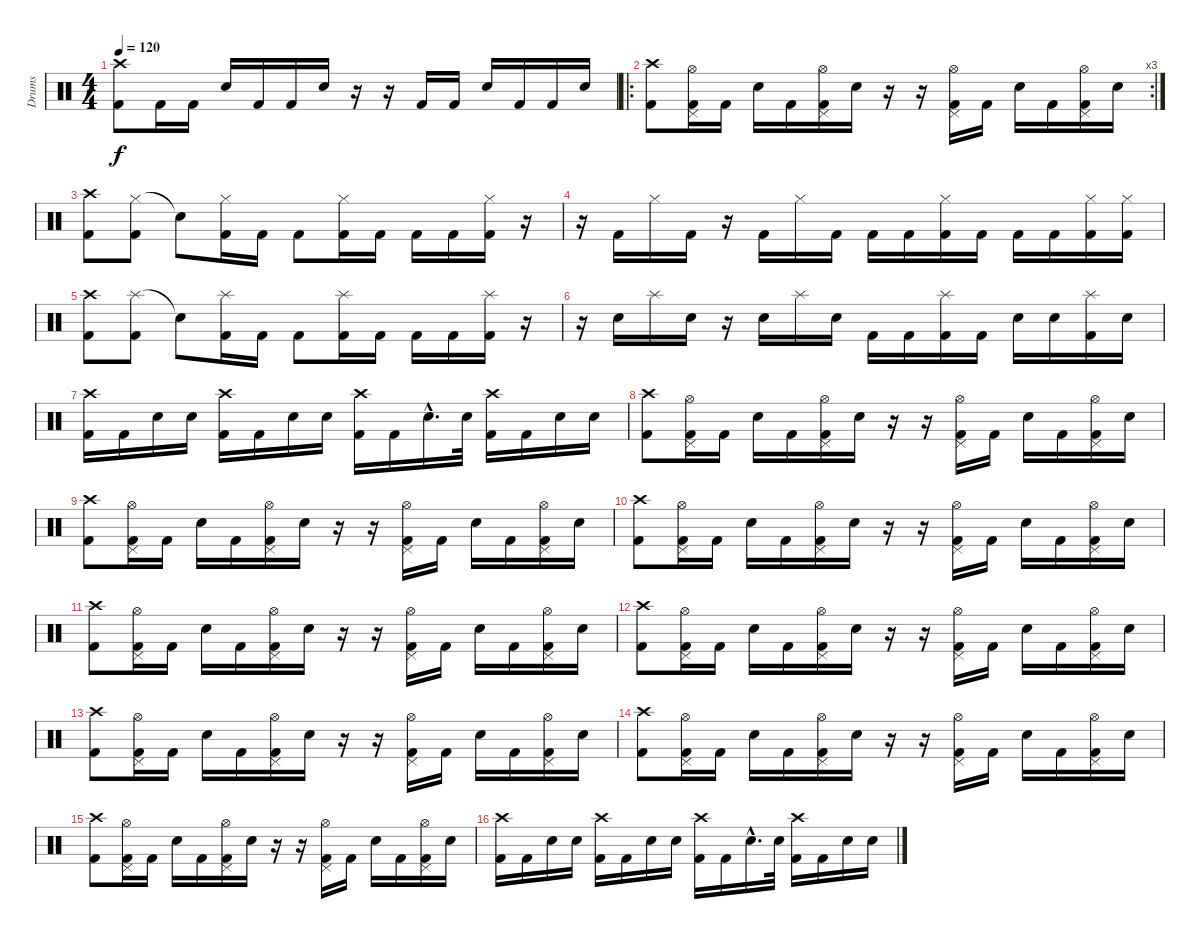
\track ("Drums" "Drums") {instrument percussion}
\staff {score}
\articulation defaults
\ts (4 4)
\tempo 120
\clef neutral
\ks c
("Crash high (hit)" "Kick (hit) 2").8{dy f} "Kick (hit) 2".16 "Kick (hit) 2".16 "Electric Snare (hit)".16 "Kick (hit) 2".16 "Kick (hit) 2".16 "Electric Snare (hit)".16 r.16 r.16 "Kick (hit) 2".16 "Kick (hit) 2".16 "Electric Snare (hit)".16 "Kick (hit) 2".16 "Kick (hit) 2".16 "Electric Snare (hit)".16 |
\ro
\rc 3
("Crash high (hit)" "Kick (hit) 2").8 ("Pedal Hi-Hat (hit)" "Hi-Hat (open)" "Kick (hit) 2").16 "Kick (hit) 2".16 "Electric Snare (hit)".16 "Kick (hit) 2".16 ("Pedal Hi-Hat (hit)" "Hi-Hat (open)" "Kick (hit) 2").16 "Electric Snare (hit)".16 r.16 r.16 ("Pedal Hi-Hat (hit)" "Hi-Hat (open)" "Kick (hit) 2").16 "Kick (hit) 2".16 "Electric Snare (hit)".16 "Kick (hit) 2".16 ("Pedal Hi-Hat (hit)" "Hi-Hat (open)" "Kick (hit) 2").16 "Electric Snare (hit)".16 |
("Crash high (hit)" "Kick (hit) 2").8 ("Hi-Hat (closed)" "Kick (hit) 2").8 "Snare (hit)"{t}.8 ("Hi-Hat (closed)" "Kick (hit) 2").16 "Kick (hit) 2".16 "Kick (hit) 2".8 ("Hi-Hat (closed)" "Kick (hit) 2").16 "Kick (hit) 2".16 "Kick (hit) 2".16 "Kick (hit) 2".16 ("Hi-Hat (closed)" "Kick (hit) 2").16 r.16 |
r.16 "Kick (hit) 2".16 "Hi-Hat (closed)".16 "Kick (hit) 2".16 r.16 "Kick (hit) 2".16 "Hi-Hat (closed)".16 "Kick (hit) 2".16 "Kick (hit) 2".16 "Kick (hit) 2".16 ("Hi-Hat (closed)" "Kick (hit) 2").16 "Kick (hit) 2".16 "Kick (hit) 2".16 "Kick (hit) 2".16 ("Hi-Hat (closed)" "Kick (hit) 2").16 ("Hi-Hat (closed)" "Kick (hit) 2").16 |
("Crash high (hit)" "Kick (hit) 2").8 ("Splash (hit)" "Kick (hit) 2").8 "Snare (hit)"{t}.8 ("Splash (hit)" "Kick (hit) 2").16 "Kick (hit) 2".16 "Kick (hit) 2".8 ("Splash (hit)" "Kick (hit) 2").16 "Kick (hit) 2".16 "Kick (hit) 2".16 "Kick (hit) 2".16 ("Splash (hit)" "Kick (hit) 2").16 r.16 |
r.16 "Electric Snare (hit)".16 "Splash (hit)".16 "Electric Snare (hit)".16 r.16 "Electric Snare (hit)".16 "Splash (hit)".16 "Electric Snare (hit)".16 "Kick (hit) 2".16 "Kick (hit) 2".16 ("Splash (hit)" "Kick (hit) 2").16 "Kick (hit) 2".16 "Electric Snare (hit)".16 "Electric Snare (hit)".16 ("Splash (hit)" "Kick (hit) 2").16 "Electric Snare (hit)".16 |
("Crash high (hit)" "Kick (hit) 2").16 "Kick (hit) 2".16 "Electric Snare (hit)".16 "Electric Snare (hit)".16 ("Crash high (hit)" "Kick (hit) 2").16 "Kick (hit) 2".16 "Electric Snare (hit)".16 "Electric Snare (hit)".16 ("Crash high (hit)" "Kick (hit) 2").16 "Kick (hit) 2".16 "Electric Snare (hit)"{hac}.16{d} "Electric Snare (hit)".32 ("Crash high (hit)" "Kick (hit) 2").16 "Kick (hit) 2".16 "Electric Snare (hit)".16 "Electric Snare (hit)".16 |
("Crash high (hit)" "Kick (hit) 2").8 ("Pedal Hi-Hat (hit)" "Hi-Hat (open)" "Kick (hit) 2").16 "Kick (hit) 2".16 "Electric Snare (hit)".16 "Kick (hit) 2".16 ("Pedal Hi-Hat (hit)" "Hi-Hat (open)" "Kick (hit) 2").16 "Electric Snare (hit)".16 r.16 r.16 ("Pedal Hi-Hat (hit)" "Hi-Hat (open)" "Kick (hit) 2").16 "Kick (hit) 2".16 "Electric Snare (hit)".16 "Kick (hit) 2".16 ("Pedal Hi-Hat (hit)" "Hi-Hat (open)" "Kick (hit) 2").16 "Electric Snare (hit)".16 |
("Crash high (hit)" "Kick (hit) 2").8 ("Pedal Hi-Hat (hit)" "Hi-Hat (open)" "Kick (hit) 2").16 "Kick (hit) 2".16 "Electric Snare (hit)".16 "Kick (hit) 2".16 ("Pedal Hi-Hat (hit)" "Hi-Hat (open)" "Kick (hit) 2").16 "Electric Snare (hit)".16 r.16 r.16 ("Pedal Hi-Hat (hit)" "Hi-Hat (open)" "Kick (hit) 2").16 "Kick (hit) 2".16 "Electric Snare (hit)".16 "Kick (hit) 2".16 ("Pedal Hi-Hat (hit)" "Hi-Hat (open)" "Kick (hit) 2").16 "Electric Snare (hit)".16 |
("Crash high (hit)" "Kick (hit) 2").8 ("Pedal Hi-Hat (hit)" "Hi-Hat (open)" "Kick (hit) 2").16 "Kick (hit) 2".16 "Electric Snare (hit)".16 "Kick (hit) 2".16 ("Pedal Hi-Hat (hit)" "Hi-Hat (open)" "Kick (hit) 2").16 "Electric Snare (hit)".16 r.16 r.16 ("Pedal Hi-Hat (hit)" "Hi-Hat (open)" "Kick (hit) 2").16 "Kick (hit) 2".16 "Electric Snare (hit)".16 "Kick (hit) 2".16 ("Pedal Hi-Hat (hit)" "Hi-Hat (open)" "Kick (hit) 2").16 "Electric Snare (hit)".16 |
("Crash high (hit)" "Kick (hit) 2").8 ("Pedal Hi-Hat (hit)" "Hi-Hat (open)" "Kick (hit) 2").16 "Kick (hit) 2".16 "Electric Snare (hit)".16 "Kick (hit) 2".16 ("Pedal Hi-Hat (hit)" "Hi-Hat (open)" "Kick (hit) 2").16 "Electric Snare (hit)".16 r.16 r.16 ("Pedal Hi-Hat (hit)" "Hi-Hat (open)" "Kick (hit) 2").16 "Kick (hit) 2".16 "Electric Snare (hit)".16 "Kick (hit) 2".16 ("Pedal Hi-Hat (hit)" "Hi-Hat (open)" "Kick (hit) 2").16 "Electric Snare (hit)".16 |
("Crash high (hit)" "Kick (hit) 2").8 ("Pedal Hi-Hat (hit)" "Hi-Hat (open)" "Kick (hit) 2").16 "Kick (hit) 2".16 "Electric Snare (hit)".16 "Kick (hit) 2".16 ("Pedal Hi-Hat (hit)" "Hi-Hat (open)" "Kick (hit) 2").16 "Electric Snare (hit)".16 r.16 r.16 ("Pedal Hi-Hat (hit)" "Hi-Hat (open)" "Kick (hit) 2").16 "Kick (hit) 2".16 "Electric Snare (hit)".16 "Kick (hit) 2".16 ("Pedal Hi-Hat (hit)" "Hi-Hat (open)" "Kick (hit) 2").16 "Electric Snare (hit)".16 |
("Crash high (hit)" "Kick (hit) 2").8 ("Pedal Hi-Hat (hit)" "Hi-Hat (open)" "Kick (hit) 2").16 "Kick (hit) 2".16 "Electric Snare (hit)".16 "Kick (hit) 2".16 ("Pedal Hi-Hat (hit)" "Hi-Hat (open)" "Kick (hit) 2").16 "Electric Snare (hit)".16 r.16 r.16 ("Pedal Hi-Hat (hit)" "Hi-Hat (open)" "Kick (hit) 2").16 "Kick (hit) 2".16 "Electric Snare (hit)".16 "Kick (hit) 2".16 ("Pedal Hi-Hat (hit)" "Hi-Hat (open)" "Kick (hit) 2").16 "Electric Snare (hit)".16 |
("Crash high (hit)" "Kick (hit) 2").8 ("Pedal Hi-Hat (hit)" "Hi-Hat (open)" "Kick (hit) 2").16 "Kick (hit) 2".16 "Electric Snare (hit)".16 "Kick (hit) 2".16 ("Pedal Hi-Hat (hit)" "Hi-Hat (open)" "Kick (hit) 2").16 "Electric Snare (hit)".16 r.16 r.16 ("Pedal Hi-Hat (hit)" "Hi-Hat (open)" "Kick (hit) 2").16 "Kick (hit) 2".16 "Electric Snare (hit)".16 "Kick (hit) 2".16 ("Pedal Hi-Hat (hit)" "Hi-Hat (open)" "Kick (hit) 2").16 "Electric Snare (hit)".16 |
("Crash high (hit)" "Kick (hit) 2").8 ("Pedal Hi-Hat (hit)" "Hi-Hat (open)" "Kick (hit) 2").16 "Kick (hit) 2".16 "Electric Snare (hit)".16 "Kick (hit) 2".16 ("Pedal Hi-Hat (hit)" "Hi-Hat (open)" "Kick (hit) 2").16 "Electric Snare (hit)".16 r.16 r.16 ("Pedal Hi-Hat (hit)" "Hi-Hat (open)" "Kick (hit) 2").16 "Kick (hit) 2".16 "Electric Snare (hit)".16 "Kick (hit) 2".16 ("Pedal Hi-Hat (hit)" "Hi-Hat (open)" "Kick (hit) 2").16 "Electric Snare (hit)".16 |
("Crash high (hit)" "Kick (hit) 2").16 "Kick (hit) 2".16 "Electric Snare (hit)".16 "Electric Snare (hit)".16 ("Crash high (hit)" "Kick (hit) 2").16 "Kick (hit) 2".16 "Electric Snare (hit)".16 "Electric Snare (hit)".16 ("Crash high (hit)" "Kick (hit) 2").16 "Kick (hit) 2".16 "Electric Snare (hit)"{hac}.16{d} "Electric Snare (hit)".32 ("Crash high (hit)" "Kick (hit) 2").16 "Kick (hit) 2".16 "Electric Snare (hit)".16 "Electric Snare (hit)".16
